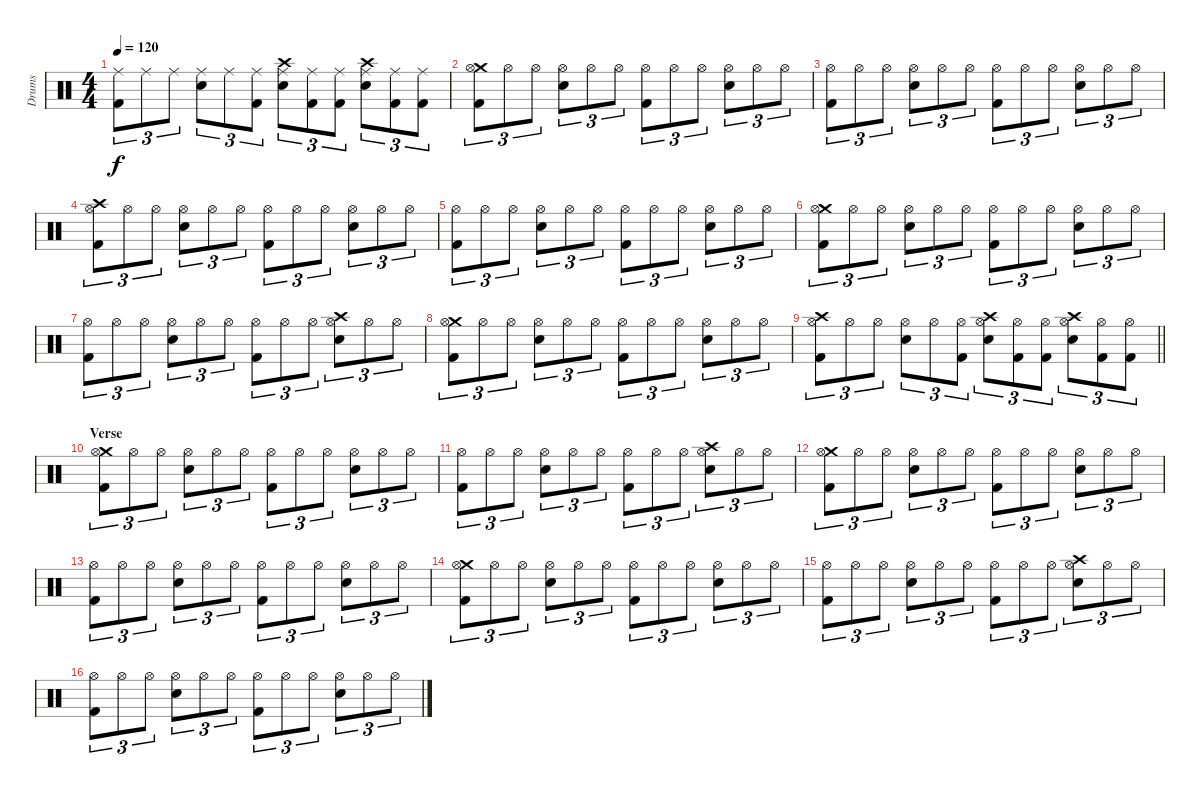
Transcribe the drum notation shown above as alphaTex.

\track ("Drums" "Drums") {instrument percussion}
\staff {score}
\articulation defaults
\ts (4 4)
\tempo 120
\clef neutral
\ks c
("Ride (middle)" "Kick (hit) 2").8{tu (3 2) dy f} "Ride (middle)".8{tu (3 2)} "Ride (middle)".8{tu (3 2)} ("Ride (middle)" "Snare (hit) 2").8{tu (3 2)} "Ride (middle)".8{tu (3 2)} ("Ride (middle)" "Kick (hit) 2").8{tu (3 2)} ("Crash high (hit)" "Ride (middle)" "Snare (hit) 2").8{tu (3 2)} ("Ride (middle)" "Kick (hit) 2").8{tu (3 2)} ("Ride (middle)" "Kick (hit) 2").8{tu (3 2)} ("Crash high (hit)" "Ride (middle)" "Snare (hit) 2").8{tu (3 2)} ("Ride (middle)" "Kick (hit) 2").8{tu (3 2)} ("Ride (middle)" "Kick (hit) 2").8{tu (3 2)} |
("Crash medium (hit)" "Hi-Hat (open)" "Kick (hit) 2").8{tu (3 2)} "Hi-Hat (open)".8{tu (3 2)} "Hi-Hat (open)".8{tu (3 2)} ("Hi-Hat (open)" "Snare (hit) 2").8{tu (3 2)} "Hi-Hat (open)".8{tu (3 2)} "Hi-Hat (open)".8{tu (3 2)} ("Hi-Hat (open)" "Kick (hit) 2").8{tu (3 2)} "Hi-Hat (open)".8{tu (3 2)} "Hi-Hat (open)".8{tu (3 2)} ("Hi-Hat (open)" "Snare (hit) 2").8{tu (3 2)} "Hi-Hat (open)".8{tu (3 2)} "Hi-Hat (open)".8{tu (3 2)} |
("Hi-Hat (open)" "Kick (hit) 2").8{tu (3 2)} "Hi-Hat (open)".8{tu (3 2)} "Hi-Hat (open)".8{tu (3 2)} ("Hi-Hat (open)" "Snare (hit) 2").8{tu (3 2)} "Hi-Hat (open)".8{tu (3 2)} "Hi-Hat (open)".8{tu (3 2)} ("Hi-Hat (open)" "Kick (hit) 2").8{tu (3 2)} "Hi-Hat (open)".8{tu (3 2)} "Hi-Hat (open)".8{tu (3 2)} ("Hi-Hat (open)" "Snare (hit) 2").8{tu (3 2)} "Hi-Hat (open)".8{tu (3 2)} "Hi-Hat (open)".8{tu (3 2)} |
("Crash high (hit)" "Hi-Hat (open)" "Kick (hit) 2").8{tu (3 2)} "Hi-Hat (open)".8{tu (3 2)} "Hi-Hat (open)".8{tu (3 2)} ("Hi-Hat (open)" "Snare (hit) 2").8{tu (3 2)} "Hi-Hat (open)".8{tu (3 2)} "Hi-Hat (open)".8{tu (3 2)} ("Hi-Hat (open)" "Kick (hit) 2").8{tu (3 2)} "Hi-Hat (open)".8{tu (3 2)} "Hi-Hat (open)".8{tu (3 2)} ("Hi-Hat (open)" "Snare (hit) 2").8{tu (3 2)} "Hi-Hat (open)".8{tu (3 2)} "Hi-Hat (open)".8{tu (3 2)} |
("Hi-Hat (open)" "Kick (hit) 2").8{tu (3 2)} "Hi-Hat (open)".8{tu (3 2)} "Hi-Hat (open)".8{tu (3 2)} ("Hi-Hat (open)" "Snare (hit) 2").8{tu (3 2)} "Hi-Hat (open)".8{tu (3 2)} "Hi-Hat (open)".8{tu (3 2)} ("Hi-Hat (open)" "Kick (hit) 2").8{tu (3 2)} "Hi-Hat (open)".8{tu (3 2)} "Hi-Hat (open)".8{tu (3 2)} ("Hi-Hat (open)" "Snare (hit) 2").8{tu (3 2)} "Hi-Hat (open)".8{tu (3 2)} "Hi-Hat (open)".8{tu (3 2)} |
("Crash medium (hit)" "Hi-Hat (open)" "Kick (hit) 2").8{tu (3 2)} "Hi-Hat (open)".8{tu (3 2)} "Hi-Hat (open)".8{tu (3 2)} ("Hi-Hat (open)" "Snare (hit) 2").8{tu (3 2)} "Hi-Hat (open)".8{tu (3 2)} "Hi-Hat (open)".8{tu (3 2)} ("Hi-Hat (open)" "Kick (hit) 2").8{tu (3 2)} "Hi-Hat (open)".8{tu (3 2)} "Hi-Hat (open)".8{tu (3 2)} ("Hi-Hat (open)" "Snare (hit) 2").8{tu (3 2)} "Hi-Hat (open)".8{tu (3 2)} "Hi-Hat (open)".8{tu (3 2)} |
("Hi-Hat (open)" "Kick (hit) 2").8{tu (3 2)} "Hi-Hat (open)".8{tu (3 2)} "Hi-Hat (open)".8{tu (3 2)} ("Hi-Hat (open)" "Snare (hit) 2").8{tu (3 2)} "Hi-Hat (open)".8{tu (3 2)} "Hi-Hat (open)".8{tu (3 2)} ("Hi-Hat (open)" "Kick (hit) 2").8{tu (3 2)} "Hi-Hat (open)".8{tu (3 2)} "Hi-Hat (open)".8{tu (3 2)} ("Crash high (hit)" "Hi-Hat (open)" "Snare (hit) 2").8{tu (3 2)} "Hi-Hat (open)".8{tu (3 2)} "Hi-Hat (open)".8{tu (3 2)} |
("Crash medium (hit)" "Hi-Hat (open)" "Kick (hit) 2").8{tu (3 2)} "Hi-Hat (open)".8{tu (3 2)} "Hi-Hat (open)".8{tu (3 2)} ("Hi-Hat (open)" "Snare (hit) 2").8{tu (3 2)} "Hi-Hat (open)".8{tu (3 2)} "Hi-Hat (open)".8{tu (3 2)} ("Hi-Hat (open)" "Kick (hit) 2").8{tu (3 2)} "Hi-Hat (open)".8{tu (3 2)} "Hi-Hat (open)".8{tu (3 2)} ("Hi-Hat (open)" "Snare (hit) 2").8{tu (3 2)} "Hi-Hat (open)".8{tu (3 2)} "Hi-Hat (open)".8{tu (3 2)} |
\barLineRight lightlight
("Crash high (hit)" "Hi-Hat (open)" "Kick (hit) 2").8{tu (3 2)} "Hi-Hat (open)".8{tu (3 2)} "Hi-Hat (open)".8{tu (3 2)} ("Hi-Hat (open)" "Snare (hit) 2").8{tu (3 2)} "Hi-Hat (open)".8{tu (3 2)} ("Hi-Hat (open)" "Kick (hit) 2").8{tu (3 2)} ("Crash high (hit)" "Hi-Hat (open)" "Snare (hit) 2").8{tu (3 2)} ("Hi-Hat (open)" "Kick (hit) 2").8{tu (3 2)} ("Hi-Hat (open)" "Kick (hit) 2").8{tu (3 2)} ("Crash high (hit)" "Hi-Hat (open)" "Snare (hit) 2").8{tu (3 2)} ("Hi-Hat (open)" "Kick (hit) 2").8{tu (3 2)} ("Hi-Hat (open)" "Kick (hit) 2").8{tu (3 2)} |
\section ("" "Verse")
("Crash medium (hit)" "Hi-Hat (open)" "Kick (hit) 2").8{tu (3 2)} "Hi-Hat (open)".8{tu (3 2)} "Hi-Hat (open)".8{tu (3 2)} ("Hi-Hat (open)" "Snare (hit) 2").8{tu (3 2)} "Hi-Hat (open)".8{tu (3 2)} "Hi-Hat (open)".8{tu (3 2)} ("Hi-Hat (open)" "Kick (hit) 2").8{tu (3 2)} "Hi-Hat (open)".8{tu (3 2)} "Hi-Hat (open)".8{tu (3 2)} ("Hi-Hat (open)" "Snare (hit) 2").8{tu (3 2)} "Hi-Hat (open)".8{tu (3 2)} "Hi-Hat (open)".8{tu (3 2)} |
("Hi-Hat (open)" "Kick (hit) 2").8{tu (3 2)} "Hi-Hat (open)".8{tu (3 2)} "Hi-Hat (open)".8{tu (3 2)} ("Hi-Hat (open)" "Snare (hit) 2").8{tu (3 2)} "Hi-Hat (open)".8{tu (3 2)} "Hi-Hat (open)".8{tu (3 2)} ("Hi-Hat (open)" "Kick (hit) 2").8{tu (3 2)} "Hi-Hat (open)".8{tu (3 2)} "Hi-Hat (open)".8{tu (3 2)} ("Crash high (hit)" "Hi-Hat (open)" "Snare (hit) 2").8{tu (3 2)} "Hi-Hat (open)".8{tu (3 2)} "Hi-Hat (open)".8{tu (3 2)} |
("Crash medium (hit)" "Hi-Hat (open)" "Kick (hit) 2").8{tu (3 2)} "Hi-Hat (open)".8{tu (3 2)} "Hi-Hat (open)".8{tu (3 2)} ("Hi-Hat (open)" "Snare (hit) 2").8{tu (3 2)} "Hi-Hat (open)".8{tu (3 2)} "Hi-Hat (open)".8{tu (3 2)} ("Hi-Hat (open)" "Kick (hit) 2").8{tu (3 2)} "Hi-Hat (open)".8{tu (3 2)} "Hi-Hat (open)".8{tu (3 2)} ("Hi-Hat (open)" "Snare (hit) 2").8{tu (3 2)} "Hi-Hat (open)".8{tu (3 2)} "Hi-Hat (open)".8{tu (3 2)} |
("Hi-Hat (open)" "Kick (hit) 2").8{tu (3 2)} "Hi-Hat (open)".8{tu (3 2)} "Hi-Hat (open)".8{tu (3 2)} ("Hi-Hat (open)" "Snare (hit) 2").8{tu (3 2)} "Hi-Hat (open)".8{tu (3 2)} "Hi-Hat (open)".8{tu (3 2)} ("Hi-Hat (open)" "Kick (hit) 2").8{tu (3 2)} "Hi-Hat (open)".8{tu (3 2)} "Hi-Hat (open)".8{tu (3 2)} ("Hi-Hat (open)" "Snare (hit) 2").8{tu (3 2)} "Hi-Hat (open)".8{tu (3 2)} "Hi-Hat (open)".8{tu (3 2)} |
("Crash medium (hit)" "Hi-Hat (open)" "Kick (hit) 2").8{tu (3 2)} "Hi-Hat (open)".8{tu (3 2)} "Hi-Hat (open)".8{tu (3 2)} ("Hi-Hat (open)" "Snare (hit) 2").8{tu (3 2)} "Hi-Hat (open)".8{tu (3 2)} "Hi-Hat (open)".8{tu (3 2)} ("Hi-Hat (open)" "Kick (hit) 2").8{tu (3 2)} "Hi-Hat (open)".8{tu (3 2)} "Hi-Hat (open)".8{tu (3 2)} ("Hi-Hat (open)" "Snare (hit) 2").8{tu (3 2)} "Hi-Hat (open)".8{tu (3 2)} "Hi-Hat (open)".8{tu (3 2)} |
("Hi-Hat (open)" "Kick (hit) 2").8{tu (3 2)} "Hi-Hat (open)".8{tu (3 2)} "Hi-Hat (open)".8{tu (3 2)} ("Hi-Hat (open)" "Snare (hit) 2").8{tu (3 2)} "Hi-Hat (open)".8{tu (3 2)} "Hi-Hat (open)".8{tu (3 2)} ("Hi-Hat (open)" "Kick (hit) 2").8{tu (3 2)} "Hi-Hat (open)".8{tu (3 2)} "Hi-Hat (open)".8{tu (3 2)} ("Crash high (hit)" "Hi-Hat (open)" "Snare (hit) 2").8{tu (3 2)} "Hi-Hat (open)".8{tu (3 2)} "Hi-Hat (open)".8{tu (3 2)} |
("Hi-Hat (open)" "Kick (hit) 2").8{tu (3 2)} "Hi-Hat (open)".8{tu (3 2)} "Hi-Hat (open)".8{tu (3 2)} ("Hi-Hat (open)" "Snare (hit) 2").8{tu (3 2)} "Hi-Hat (open)".8{tu (3 2)} "Hi-Hat (open)".8{tu (3 2)} ("Hi-Hat (open)" "Kick (hit) 2").8{tu (3 2)} "Hi-Hat (open)".8{tu (3 2)} "Hi-Hat (open)".8{tu (3 2)} ("Hi-Hat (open)" "Snare (hit) 2").8{tu (3 2)} "Hi-Hat (open)".8{tu (3 2)} "Hi-Hat (open)".8{tu (3 2)}
